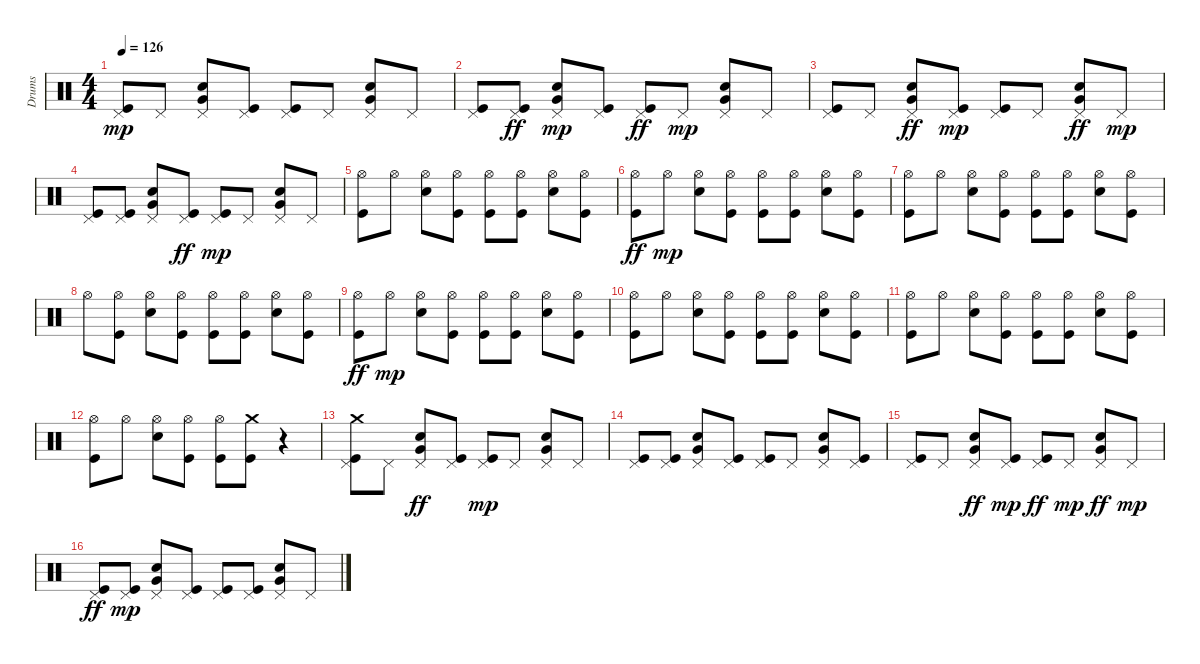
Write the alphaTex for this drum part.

\track ("Drums" "Drums") {instrument percussion}
\staff {score}
\articulation defaults
\ts (4 4)
\tempo 126
\clef neutral
\ks c
("Pedal Hi-Hat (hit)" "Kick (hit)").8{dy mp} "Pedal Hi-Hat (hit)".8 ("Pedal Hi-Hat (hit)" "Electric Snare (hit)" "Very Low Tom (hit)").8 ("Pedal Hi-Hat (hit)" "Kick (hit)").8 ("Pedal Hi-Hat (hit)" "Kick (hit)").8 "Pedal Hi-Hat (hit)".8 ("Pedal Hi-Hat (hit)" "Very Low Tom (hit)" "Electric Snare (hit)").8 "Pedal Hi-Hat (hit)".8 |
("Pedal Hi-Hat (hit)" "Kick (hit)").8 ("Pedal Hi-Hat (hit)" "Kick (hit)").8{dy ff} ("Very Low Tom (hit)" "Pedal Hi-Hat (hit)" "Electric Snare (hit)").8{dy mp} ("Pedal Hi-Hat (hit)" "Kick (hit)").8 ("Pedal Hi-Hat (hit)" "Kick (hit)").8{dy ff} "Pedal Hi-Hat (hit)".8{dy mp} ("Pedal Hi-Hat (hit)" "Very Low Tom (hit)" "Electric Snare (hit)").8 "Pedal Hi-Hat (hit)".8 |
("Pedal Hi-Hat (hit)" "Kick (hit)").8 "Pedal Hi-Hat (hit)".8 ("Pedal Hi-Hat (hit)" "Electric Snare (hit)" "Very Low Tom (hit)").8{dy ff} ("Pedal Hi-Hat (hit)" "Kick (hit)").8{dy mp} ("Pedal Hi-Hat (hit)" "Kick (hit)").8 "Pedal Hi-Hat (hit)".8 ("Pedal Hi-Hat (hit)" "Very Low Tom (hit)" "Electric Snare (hit)").8{dy ff} "Pedal Hi-Hat (hit)".8{dy mp} |
("Pedal Hi-Hat (hit)" "Kick (hit)").8 ("Pedal Hi-Hat (hit)" "Kick (hit)").8 ("Very Low Tom (hit)" "Pedal Hi-Hat (hit)" "Electric Snare (hit)").8 ("Pedal Hi-Hat (hit)" "Kick (hit)").8{dy ff} ("Pedal Hi-Hat (hit)" "Kick (hit)").8{dy mp} "Pedal Hi-Hat (hit)".8 ("Pedal Hi-Hat (hit)" "Very Low Tom (hit)" "Electric Snare (hit)").8 "Pedal Hi-Hat (hit)".8 |
("Hi-Hat (open)" "Kick (hit)").8 "Hi-Hat (open)".8 ("Hi-Hat (open)" "Electric Snare (hit)").8 ("Hi-Hat (open)" "Kick (hit)").8 ("Hi-Hat (open)" "Kick (hit)").8 ("Hi-Hat (open)" "Kick (hit)").8 ("Hi-Hat (open)" "Electric Snare (hit)").8 ("Hi-Hat (open)" "Kick (hit)").8 |
("Hi-Hat (open)" "Kick (hit)").8{dy ff} "Hi-Hat (open)".8{dy mp} ("Hi-Hat (open)" "Electric Snare (hit)").8 ("Hi-Hat (open)" "Kick (hit)").8 ("Hi-Hat (open)" "Kick (hit)").8 ("Hi-Hat (open)" "Kick (hit)").8 ("Hi-Hat (open)" "Electric Snare (hit)").8 ("Hi-Hat (open)" "Kick (hit)").8 |
("Hi-Hat (open)" "Kick (hit)").8 "Hi-Hat (open)".8 ("Hi-Hat (open)" "Electric Snare (hit)").8 ("Hi-Hat (open)" "Kick (hit)").8 ("Hi-Hat (open)" "Kick (hit)").8 ("Hi-Hat (open)" "Kick (hit)").8 ("Hi-Hat (open)" "Electric Snare (hit)").8 ("Hi-Hat (open)" "Kick (hit)").8 |
"Hi-Hat (open)".8 ("Hi-Hat (open)" "Kick (hit)").8 ("Hi-Hat (open)" "Electric Snare (hit)").8 ("Kick (hit)" "Hi-Hat (open)").8 ("Hi-Hat (open)" "Kick (hit)").8 ("Kick (hit)" "Hi-Hat (open)").8 ("Hi-Hat (open)" "Electric Snare (hit)").8 ("Hi-Hat (open)" "Kick (hit)").8 |
("Hi-Hat (open)" "Kick (hit)").8{dy ff} "Hi-Hat (open)".8{dy mp} ("Hi-Hat (open)" "Electric Snare (hit)").8 ("Hi-Hat (open)" "Kick (hit)").8 ("Hi-Hat (open)" "Kick (hit)").8 ("Hi-Hat (open)" "Kick (hit)").8 ("Hi-Hat (open)" "Electric Snare (hit)").8 ("Hi-Hat (open)" "Kick (hit)").8 |
("Hi-Hat (open)" "Kick (hit)").8 "Hi-Hat (open)".8 ("Hi-Hat (open)" "Electric Snare (hit)").8 ("Hi-Hat (open)" "Kick (hit)").8 ("Hi-Hat (open)" "Kick (hit)").8 ("Hi-Hat (open)" "Kick (hit)").8 ("Hi-Hat (open)" "Electric Snare (hit)").8 ("Hi-Hat (open)" "Kick (hit)").8 |
("Hi-Hat (open)" "Kick (hit)").8 "Hi-Hat (open)".8 ("Hi-Hat (open)" "Electric Snare (hit)").8 ("Hi-Hat (open)" "Kick (hit)").8 ("Hi-Hat (open)" "Kick (hit)").8 ("Hi-Hat (open)" "Kick (hit)").8 ("Hi-Hat (open)" "Electric Snare (hit)").8 ("Hi-Hat (open)" "Kick (hit)").8 |
("Hi-Hat (open)" "Kick (hit)").8 "Hi-Hat (open)".8 ("Hi-Hat (open)" "Electric Snare (hit)").8 ("Hi-Hat (open)" "Kick (hit)").8 ("Hi-Hat (open)" "Kick (hit)").8 ("Crash medium (hit)" "Kick (hit)").8 r.4 |
("Pedal Hi-Hat (hit)" "Crash medium (hit)" "Kick (hit)").8 "Pedal Hi-Hat (hit)".8 ("Pedal Hi-Hat (hit)" "Very Low Tom (hit)" "Electric Snare (hit)").8{dy ff} ("Pedal Hi-Hat (hit)" "Kick (hit)").8 ("Pedal Hi-Hat (hit)" "Kick (hit)").8{dy mp} "Pedal Hi-Hat (hit)".8 ("Pedal Hi-Hat (hit)" "Very Low Tom (hit)" "Electric Snare (hit)").8 "Pedal Hi-Hat (hit)".8 |
("Pedal Hi-Hat (hit)" "Kick (hit)").8 ("Pedal Hi-Hat (hit)" "Kick (hit)").8 ("Very Low Tom (hit)" "Pedal Hi-Hat (hit)" "Electric Snare (hit)").8 ("Pedal Hi-Hat (hit)" "Kick (hit)").8 ("Pedal Hi-Hat (hit)" "Kick (hit)").8 "Pedal Hi-Hat (hit)".8 ("Pedal Hi-Hat (hit)" "Very Low Tom (hit)" "Electric Snare (hit)").8 ("Kick (hit)" "Pedal Hi-Hat (hit)").8 |
("Pedal Hi-Hat (hit)" "Kick (hit)").8 "Pedal Hi-Hat (hit)".8 ("Pedal Hi-Hat (hit)" "Electric Snare (hit)" "Very Low Tom (hit)").8{dy ff} ("Pedal Hi-Hat (hit)" "Kick (hit)").8{dy mp} ("Pedal Hi-Hat (hit)" "Kick (hit)").8{dy ff} "Pedal Hi-Hat (hit)".8{dy mp} ("Pedal Hi-Hat (hit)" "Very Low Tom (hit)" "Electric Snare (hit)").8{dy ff} "Pedal Hi-Hat (hit)".8{dy mp} |
("Pedal Hi-Hat (hit)" "Kick (hit)").8{dy ff} ("Pedal Hi-Hat (hit)" "Kick (hit)").8{dy mp} ("Very Low Tom (hit)" "Pedal Hi-Hat (hit)" "Electric Snare (hit)").8 ("Pedal Hi-Hat (hit)" "Kick (hit)").8 ("Pedal Hi-Hat (hit)" "Kick (hit)").8 ("Kick (hit)" "Pedal Hi-Hat (hit)").8 ("Pedal Hi-Hat (hit)" "Very Low Tom (hit)" "Electric Snare (hit)").8 "Pedal Hi-Hat (hit)".8
